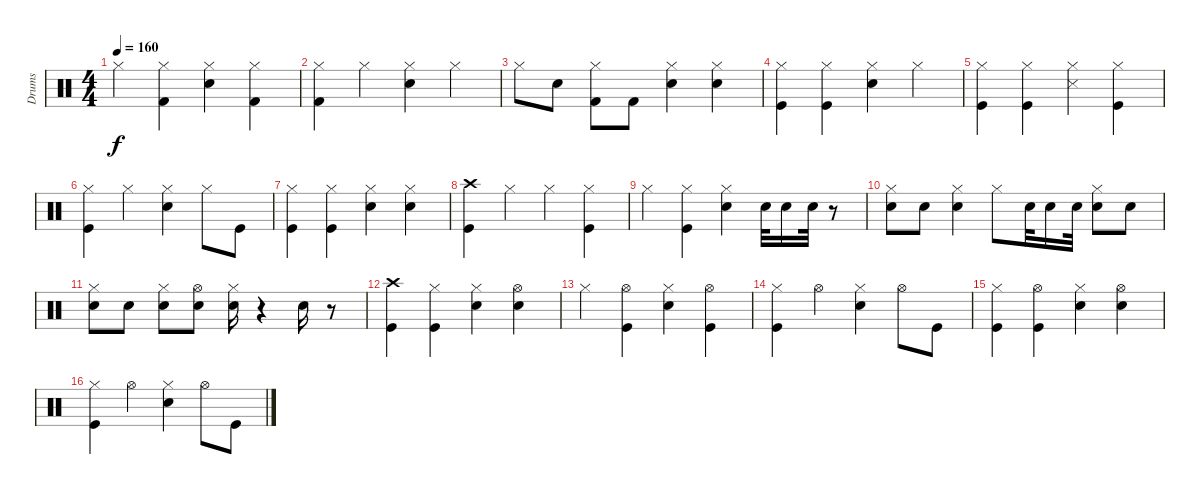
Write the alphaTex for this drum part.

\track ("Drums" "Drums") {instrument percussion}
\staff {score}
\articulation defaults
\ts (4 4)
\tempo 160
\clef neutral
\ks c "Hi-Hat (closed)".4{dy f}
("Hi-Hat (closed)" "Kick (hit) 2").4 ("Hi-Hat (closed)" "Snare (hit) 2").4 ("Hi-Hat (closed)" "Kick (hit) 2").4 |
("Kick (hit) 2" "Hi-Hat (closed)").4 "Hi-Hat (closed)".4 ("Snare (hit) 2" "Hi-Hat (closed)").4 "Hi-Hat (closed)".4 |
"Hi-Hat (closed)".8 "Snare (hit) 2".8 ("Kick (hit) 2" "Hi-Hat (closed)").8 "Kick (hit) 2".8 ("Snare (hit) 2" "Hi-Hat (closed)").4 ("Snare (hit) 2" "Hi-Hat (closed)").4 |
("Kick (hit)" "Hi-Hat (closed)").4 ("Kick (hit)" "Hi-Hat (closed)").4 ("Snare (hit) 2" "Hi-Hat (closed)").4 "Hi-Hat (closed)".4 |
("Kick (hit)" "Hi-Hat (closed)").4 ("Kick (hit)" "Hi-Hat (closed)").4 ("Snare (side stick) 3" "Hi-Hat (closed)").4 ("Kick (hit)" "Hi-Hat (closed)").4 |
("Kick (hit)" "Hi-Hat (closed)").4 "Hi-Hat (closed)".4 ("Snare (hit) 2" "Hi-Hat (closed)").4 "Hi-Hat (closed)".8 "Kick (hit)".8 |
("Kick (hit)" "Hi-Hat (closed)").4 ("Kick (hit)" "Hi-Hat (closed)").4 ("Snare (hit) 2" "Hi-Hat (closed)").4 ("Snare (hit) 2" "Hi-Hat (closed)").4 |
("Kick (hit)" "Crash high (hit)").4 "Hi-Hat (closed)".4 "Hi-Hat (closed)".4 ("Kick (hit)" "Hi-Hat (closed)").4 |
"Hi-Hat (closed)".4 ("Kick (hit)" "Hi-Hat (closed)").4 ("Snare (hit) 2" "Hi-Hat (closed)").4 "Snare (hit) 2".32 "Snare (hit) 2".16 "Snare (hit) 2".32 r.8 |
("Hi-Hat (closed)" "Snare (hit) 2").8 "Snare (hit) 2".8 ("Hi-Hat (closed)" "Snare (hit) 2").4 "Hi-Hat (closed)".8 "Snare (hit) 2".32 "Snare (hit) 2".16 "Snare (hit) 2".32 ("Snare (hit) 2" "Hi-Hat (closed)").8 "Snare (hit) 2".8 |
("Hi-Hat (closed)" "Snare (hit) 2").8 "Snare (hit) 2".8 ("Hi-Hat (closed)" "Snare (hit) 2").8 ("Hi-Hat (open)" "Snare (hit) 2").8 ("Hi-Hat (closed)" "Snare (hit) 2").16 r.4 "Snare (hit) 2".16 r.8 |
("Kick (hit)" "Crash high (hit)").4 ("Hi-Hat (closed)" "Kick (hit)").4 ("Hi-Hat (closed)" "Snare (hit) 2").4 ("Snare (hit) 2" "Hi-Hat (open)").4 |
"Hi-Hat (closed)".4 ("Kick (hit)" "Hi-Hat (open)").4 ("Snare (hit) 2" "Hi-Hat (closed)").4 ("Kick (hit)" "Hi-Hat (open)").4 |
("Kick (hit)" "Hi-Hat (closed)").4 "Hi-Hat (open)".4 ("Snare (hit) 2" "Hi-Hat (closed)").4 "Hi-Hat (open)".8 "Kick (hit)".8 |
("Hi-Hat (closed)" "Kick (hit)").4 ("Hi-Hat (open)" "Kick (hit)").4 ("Hi-Hat (closed)" "Snare (hit) 2").4 ("Hi-Hat (open)" "Snare (hit) 2").4 |
("Hi-Hat (closed)" "Kick (hit)").4 "Hi-Hat (open)".4 ("Snare (hit) 2" "Hi-Hat (closed)").4 "Hi-Hat (open)".8 "Kick (hit)".8
